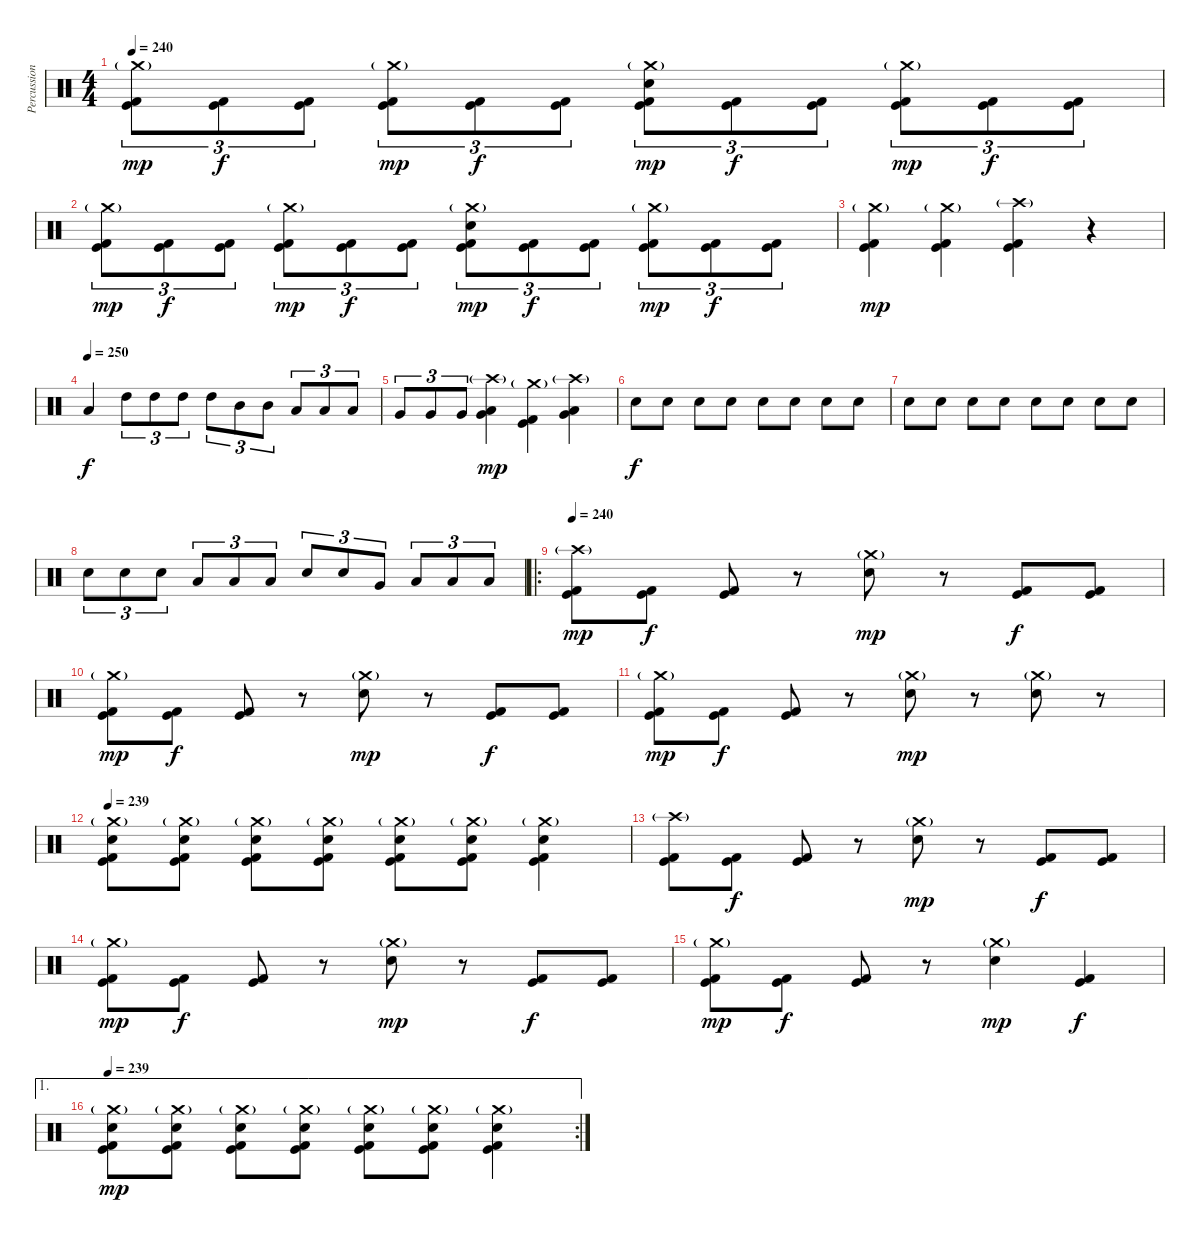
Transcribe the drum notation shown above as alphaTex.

\track ("Percussion" "Percussion") {instrument percussion}
\staff {score}
\articulation defaults
\ts (4 4)
\tempo 240
\clef neutral
\ks c
("Crash medium (hit)"{g} "Kick (hit)" "Kick (hit) 2").8{tu (3 2) dy mp} ("Kick (hit)" "Kick (hit) 2").8{tu (3 2) dy f} ("Kick (hit)" "Kick (hit) 2").8{tu (3 2)} ("Crash medium (hit)"{g} "Kick (hit)" "Kick (hit) 2").8{tu (3 2) dy mp} ("Kick (hit)" "Kick (hit) 2").8{tu (3 2) dy f} ("Kick (hit)" "Kick (hit) 2").8{tu (3 2)} ("Crash medium (hit)"{g} "Electric Snare (hit)" "Kick (hit)" "Kick (hit) 2").8{tu (3 2) dy mp} ("Kick (hit)" "Kick (hit) 2").8{tu (3 2) dy f} ("Kick (hit)" "Kick (hit) 2").8{tu (3 2)} ("Crash medium (hit)"{g} "Kick (hit)" "Kick (hit) 2").8{tu (3 2) dy mp} ("Kick (hit)" "Kick (hit) 2").8{tu (3 2) dy f} ("Kick (hit)" "Kick (hit) 2").8{tu (3 2)} |
("Crash medium (hit)"{g} "Kick (hit)" "Kick (hit) 2").8{tu (3 2) dy mp} ("Kick (hit)" "Kick (hit) 2").8{tu (3 2) dy f} ("Kick (hit)" "Kick (hit) 2").8{tu (3 2)} ("Crash medium (hit)"{g} "Kick (hit)" "Kick (hit) 2").8{tu (3 2) dy mp} ("Kick (hit)" "Kick (hit) 2").8{tu (3 2) dy f} ("Kick (hit)" "Kick (hit) 2").8{tu (3 2)} ("Crash medium (hit)"{g} "Electric Snare (hit)" "Kick (hit)" "Kick (hit) 2").8{tu (3 2) dy mp} ("Kick (hit)" "Kick (hit) 2").8{tu (3 2) dy f} ("Kick (hit)" "Kick (hit) 2").8{tu (3 2)} ("Crash medium (hit)"{g} "Kick (hit)" "Kick (hit) 2").8{tu (3 2) dy mp} ("Kick (hit)" "Kick (hit) 2").8{tu (3 2) dy f} ("Kick (hit)" "Kick (hit) 2").8{tu (3 2)} |
("Crash medium (hit)"{g} "Kick (hit)" "Kick (hit) 2").4{dy mp} ("Crash medium (hit)"{g} "Kick (hit)" "Kick (hit) 2").4 ("Crash high (hit)"{g} "Kick (hit)" "Kick (hit) 2").4 r.4 |
\tempo (250)
"Low Tom (hit)".4{dy f} "High Tom (hit)".8{tu (3 2)} "High Tom (hit)".8{tu (3 2)} "High Tom (hit)".8{tu (3 2)} "High Tom (hit)".8{tu (3 2)} "Mid Tom (hit)".8{tu (3 2)} "Mid Tom (hit)".8{tu (3 2)} "Low Tom (hit)".8{tu (3 2)} "Low Tom (hit)".8{tu (3 2)} "Low Tom (hit)".8{tu (3 2)} |
"Very Low Tom (hit)".8{tu (3 2)} "Very Low Tom (hit)".8{tu (3 2)} "Very Low Tom (hit)".8{tu (3 2)} ("Crash high (hit)"{g} "Very Low Tom (hit)" "Low Tom (hit)").4{dy mp} ("Crash medium (hit)"{g} "Kick (hit)" "Kick (hit) 2").4 ("Crash high (hit)"{g} "Low Floor Tom (hit)" "Very Low Tom (hit)").4 |
"Electric Snare (hit)".8{dy f} "Electric Snare (hit)".8 "Electric Snare (hit)".8 "Electric Snare (hit)".8 "Electric Snare (hit)".8 "Electric Snare (hit)".8 "Electric Snare (hit)".8 "Electric Snare (hit)".8 |
"Electric Snare (hit)".8 "Electric Snare (hit)".8 "Electric Snare (hit)".8 "Electric Snare (hit)".8 "Electric Snare (hit)".8 "Electric Snare (hit)".8 "Electric Snare (hit)".8 "Electric Snare (hit)".8 |
"Electric Snare (hit)".8{tu (3 2)} "Electric Snare (hit)".8{tu (3 2)} "Electric Snare (hit)".8{tu (3 2)} "Low Tom (hit)".8{tu (3 2)} "Low Tom (hit)".8{tu (3 2)} "Low Tom (hit)".8{tu (3 2)} "Electric Snare (hit)".8{tu (3 2)} "Electric Snare (hit)".8{tu (3 2)} "Very Low Tom (hit)".8{tu (3 2)} "Low Floor Tom (hit)".8{tu (3 2)} "Low Floor Tom (hit)".8{tu (3 2)} "Low Floor Tom (hit)".8{tu (3 2)} |
\ro
\tempo 240
("Crash high (hit)"{g} "Kick (hit)" "Kick (hit) 2").8{dy mp} ("Kick (hit)" "Kick (hit) 2").8{dy f} ("Kick (hit)" "Kick (hit) 2").8 r.8 ("Crash medium (hit)"{g} "Electric Snare (hit)").8{dy mp} r.8 ("Kick (hit)" "Kick (hit) 2").8{dy f} ("Kick (hit)" "Kick (hit) 2").8 |
("Crash medium (hit)"{g} "Kick (hit)" "Kick (hit) 2").8{dy mp} ("Kick (hit)" "Kick (hit) 2").8{dy f} ("Kick (hit)" "Kick (hit) 2").8 r.8 ("Crash medium (hit)"{g} "Electric Snare (hit)").8{dy mp} r.8 ("Kick (hit)" "Kick (hit) 2").8{dy f} ("Kick (hit)" "Kick (hit) 2").8 |
("Crash medium (hit)"{g} "Kick (hit)" "Kick (hit) 2").8{dy mp} ("Kick (hit)" "Kick (hit) 2").8{dy f} ("Kick (hit)" "Kick (hit) 2").8 r.8 ("Crash medium (hit)"{g} "Electric Snare (hit)").8{dy mp} r.8 ("Crash medium (hit)"{g} "Electric Snare (hit)").8 r.8 |
\tempo 239
("Crash medium (hit)"{g} "Electric Snare (hit)" "Kick (hit)" "Kick (hit) 2").8 ("Crash medium (hit)"{g} "Electric Snare (hit)" "Kick (hit)" "Kick (hit) 2").8 ("Crash medium (hit)"{g} "Electric Snare (hit)" "Kick (hit)" "Kick (hit) 2").8 ("Crash medium (hit)"{g} "Electric Snare (hit)" "Kick (hit)" "Kick (hit) 2").8 ("Crash medium (hit)"{g} "Electric Snare (hit)" "Kick (hit)" "Kick (hit) 2").8 ("Crash medium (hit)"{g} "Electric Snare (hit)" "Kick (hit)" "Kick (hit) 2").8 ("Crash medium (hit)"{g} "Electric Snare (hit)" "Kick (hit)" "Kick (hit) 2").4 |
("Crash high (hit)"{g} "Kick (hit)" "Kick (hit) 2").8 ("Kick (hit)" "Kick (hit) 2").8{dy f} ("Kick (hit)" "Kick (hit) 2").8 r.8 ("Crash medium (hit)"{g} "Electric Snare (hit)").8{dy mp} r.8 ("Kick (hit)" "Kick (hit) 2").8{dy f} ("Kick (hit)" "Kick (hit) 2").8 |
("Crash medium (hit)"{g} "Kick (hit)" "Kick (hit) 2").8{dy mp} ("Kick (hit)" "Kick (hit) 2").8{dy f} ("Kick (hit)" "Kick (hit) 2").8 r.8 ("Crash medium (hit)"{g} "Electric Snare (hit)").8{dy mp} r.8 ("Kick (hit)" "Kick (hit) 2").8{dy f} ("Kick (hit)" "Kick (hit) 2").8 |
("Crash medium (hit)"{g} "Kick (hit)" "Kick (hit) 2").8{dy mp} ("Kick (hit)" "Kick (hit) 2").8{dy f} ("Kick (hit)" "Kick (hit) 2").8 r.8 ("Crash medium (hit)"{g} "Electric Snare (hit)").4{dy mp} ("Kick (hit)" "Kick (hit) 2").4{dy f} |
\ae 1
\rc 2
\tempo 239
("Crash medium (hit)"{g} "Electric Snare (hit)" "Kick (hit)" "Kick (hit) 2").8{dy mp} ("Crash medium (hit)"{g} "Electric Snare (hit)" "Kick (hit)" "Kick (hit) 2").8 ("Crash medium (hit)"{g} "Electric Snare (hit)" "Kick (hit)" "Kick (hit) 2").8 ("Crash medium (hit)"{g} "Electric Snare (hit)" "Kick (hit)" "Kick (hit) 2").8 ("Crash medium (hit)"{g} "Electric Snare (hit)" "Kick (hit)" "Kick (hit) 2").8 ("Crash medium (hit)"{g} "Electric Snare (hit)" "Kick (hit)" "Kick (hit) 2").8 ("Crash medium (hit)"{g} "Electric Snare (hit)" "Kick (hit)" "Kick (hit) 2").4
